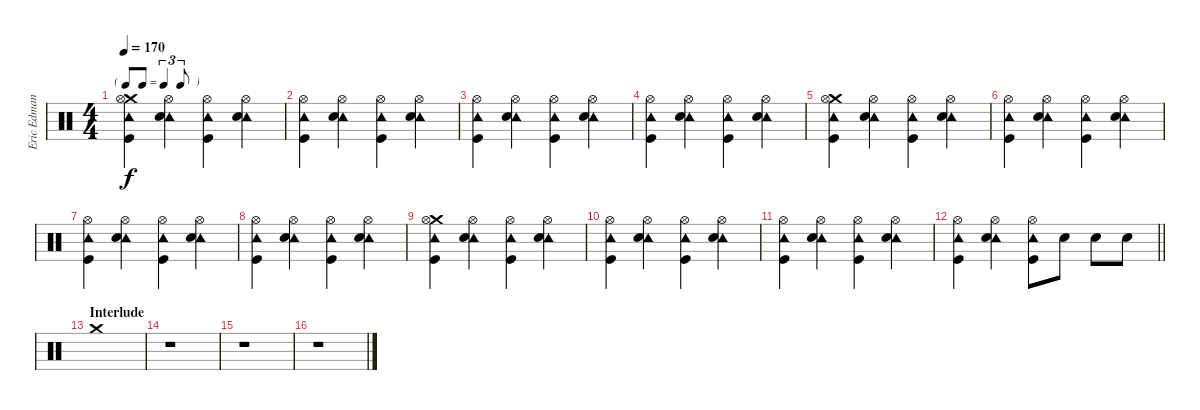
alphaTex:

\track ("Eric Edman - Drums" "Eric Edman") {instrument percussion}
\staff {score}
\articulation defaults
\ts (4 4)
\tf triplet8th
\tempo 170
\clef neutral
\ks c
("Crash medium (hit)" "Tambourine (hit)" "Kick (hit)" "Hi-Hat (open)").4{dy f} ("Tambourine (hit)" "Snare (hit) 2" "Hi-Hat (open)").4 ("Tambourine (hit)" "Kick (hit)" "Hi-Hat (open)").4 ("Tambourine (hit)" "Snare (hit) 2" "Hi-Hat (open)").4 |
("Tambourine (hit)" "Kick (hit)" "Hi-Hat (open)").4 ("Tambourine (hit)" "Snare (hit) 2" "Hi-Hat (open)").4 ("Tambourine (hit)" "Kick (hit)" "Hi-Hat (open)").4 ("Tambourine (hit)" "Snare (hit) 2" "Hi-Hat (open)").4 |
("Tambourine (hit)" "Kick (hit)" "Hi-Hat (open)").4 ("Tambourine (hit)" "Snare (hit) 2" "Hi-Hat (open)").4 ("Tambourine (hit)" "Kick (hit)" "Hi-Hat (open)").4 ("Tambourine (hit)" "Snare (hit) 2" "Hi-Hat (open)").4 |
("Tambourine (hit)" "Kick (hit)" "Hi-Hat (open)").4 ("Tambourine (hit)" "Snare (hit) 2" "Hi-Hat (open)").4 ("Tambourine (hit)" "Kick (hit)" "Hi-Hat (open)").4 ("Tambourine (hit)" "Snare (hit) 2" "Hi-Hat (open)").4 |
("Crash medium (hit)" "Tambourine (hit)" "Kick (hit)" "Hi-Hat (open)").4 ("Tambourine (hit)" "Snare (hit) 2" "Hi-Hat (open)").4 ("Tambourine (hit)" "Kick (hit)" "Hi-Hat (open)").4 ("Tambourine (hit)" "Snare (hit) 2" "Hi-Hat (open)").4 |
("Tambourine (hit)" "Kick (hit)" "Hi-Hat (open)").4 ("Tambourine (hit)" "Snare (hit) 2" "Hi-Hat (open)").4 ("Tambourine (hit)" "Kick (hit)" "Hi-Hat (open)").4 ("Tambourine (hit)" "Snare (hit) 2" "Hi-Hat (open)").4 |
("Tambourine (hit)" "Kick (hit)" "Hi-Hat (open)").4 ("Tambourine (hit)" "Snare (hit) 2" "Hi-Hat (open)").4 ("Tambourine (hit)" "Kick (hit)" "Hi-Hat (open)").4 ("Tambourine (hit)" "Snare (hit) 2" "Hi-Hat (open)").4 |
("Tambourine (hit)" "Kick (hit)" "Hi-Hat (open)").4 ("Tambourine (hit)" "Snare (hit) 2" "Hi-Hat (open)").4 ("Tambourine (hit)" "Kick (hit)" "Hi-Hat (open)").4 ("Tambourine (hit)" "Snare (hit) 2" "Hi-Hat (open)").4 |
("Crash medium (hit)" "Tambourine (hit)" "Kick (hit)" "Hi-Hat (open)").4 ("Tambourine (hit)" "Snare (hit) 2" "Hi-Hat (open)").4 ("Tambourine (hit)" "Kick (hit)" "Hi-Hat (open)").4 ("Tambourine (hit)" "Snare (hit) 2" "Hi-Hat (open)").4 |
("Tambourine (hit)" "Kick (hit)" "Hi-Hat (open)").4 ("Tambourine (hit)" "Snare (hit) 2" "Hi-Hat (open)").4 ("Tambourine (hit)" "Kick (hit)" "Hi-Hat (open)").4 ("Tambourine (hit)" "Snare (hit) 2" "Hi-Hat (open)").4 |
("Tambourine (hit)" "Kick (hit)" "Hi-Hat (open)").4 ("Tambourine (hit)" "Snare (hit) 2" "Hi-Hat (open)").4 ("Tambourine (hit)" "Kick (hit)" "Hi-Hat (open)").4 ("Tambourine (hit)" "Snare (hit) 2" "Hi-Hat (open)").4 |
\barLineRight lightlight
("Tambourine (hit)" "Kick (hit)" "Hi-Hat (open)").4 ("Tambourine (hit)" "Snare (hit) 2" "Hi-Hat (open)").4 ("Tambourine (hit)" "Kick (hit)" "Hi-Hat (open)").8 "Snare (hit) 2".8 "Snare (hit) 2".8 "Snare (hit) 2".8 |
\section ("" "Interlude")
"Crash medium (hit)".1 |
r.1 |
r.1 |
r.1
